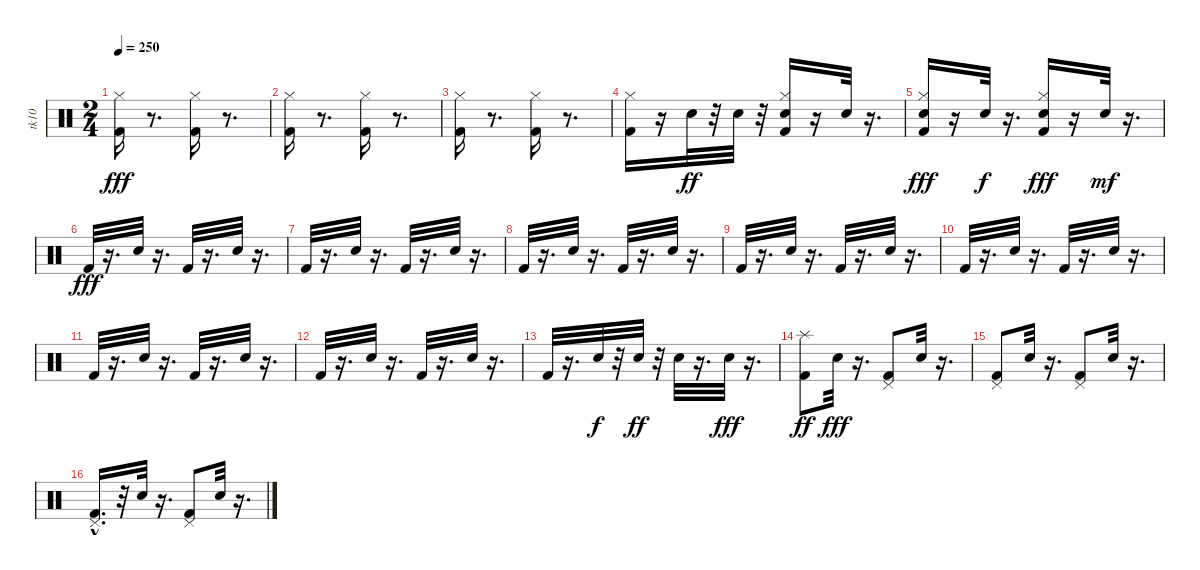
\track ("tk10" "tk10") {instrument percussion}
\staff {score}
\articulation defaults
\ts (2 4)
\tempo 250
\clef neutral
\ks c
("Kick (hit) 2" "Hi-Hat (closed)").16{dy fff} r.8{d} ("Kick (hit) 2" "Hi-Hat (closed)").16 r.8{d} |
("Kick (hit) 2" "Hi-Hat (closed)").16 r.8{d} ("Hi-Hat (closed)" "Kick (hit) 2").16 r.8{d} |
("Hi-Hat (closed)" "Kick (hit) 2").16 r.8{d} ("Hi-Hat (closed)" "Kick (hit) 2").16 r.8{d} |
("Hi-Hat (closed)" "Kick (hit) 2").16 r.16 "Electric Snare (hit)".32{dy ff} r.32 "Electric Snare (hit)".32 r.32 ("Hi-Hat (closed)" "Kick (hit) 2" "Electric Snare (hit)").16 r.16 "Electric Snare (hit)".32 r.16{d} |
("Hi-Hat (closed)" "Kick (hit) 2" "Electric Snare (hit)").16{dy fff} r.16 "Electric Snare (hit)".32{dy f} r.16{d} ("Kick (hit) 2" "Hi-Hat (closed)" "Electric Snare (hit)").16{dy fff} r.16 "Electric Snare (hit)".32{dy mf} r.16{d} |
"Kick (hit) 2".32{dy fff} r.16{d} "Snare (hit) 2".32 r.16{d} "Kick (hit) 2".32 r.16{d} "Snare (hit) 2".32 r.16{d} |
"Kick (hit) 2".32 r.16{d} "Snare (hit) 2".32 r.16{d} "Kick (hit) 2".32 r.16{d} "Snare (hit) 2".32 r.16{d} |
"Kick (hit) 2".32 r.16{d} "Snare (hit) 2".32 r.16{d} "Kick (hit) 2".32 r.16{d} "Snare (hit) 2".32 r.16{d} |
"Kick (hit) 2".32 r.16{d} "Snare (hit) 2".32 r.16{d} "Kick (hit) 2".32 r.16{d} "Snare (hit) 2".32 r.16{d} |
"Kick (hit) 2".32 r.16{d} "Snare (hit) 2".32 r.16{d} "Kick (hit) 2".32 r.16{d} "Snare (hit) 2".32 r.16{d} |
"Kick (hit) 2".32 r.16{d} "Snare (hit) 2".32 r.16{d} "Kick (hit) 2".32 r.16{d} "Snare (hit) 2".32 r.16{d} |
"Kick (hit) 2".32 r.16{d} "Snare (hit) 2".32 r.16{d} "Kick (hit) 2".32 r.16{d} "Snare (hit) 2".32 r.16{d} |
"Kick (hit) 2".32 r.16{d} "Electric Snare (hit)".32{dy f} r.32 "Electric Snare (hit)".32{dy ff} r.32 "Electric Snare (hit)".32 r.16{d} "Electric Snare (hit)".32{dy fff} r.16{d} |
("Kick (hit) 2" "Splash (hit)").8{dy ff} "Snare (hit) 2".32{dy fff} r.16{d} ("Kick (hit) 2" "Pedal Hi-Hat (hit)").8 "Snare (hit) 2".32 r.16{d} |
("Kick (hit) 2" "Pedal Hi-Hat (hit)").8 "Snare (hit) 2".32 r.16{d} ("Kick (hit) 2" "Pedal Hi-Hat (hit)").8 "Snare (hit) 2".32 r.16{d} |
("Kick (hit) 2"{hac} "Pedal Hi-Hat (hit)").16{d} r.32 "Snare (hit) 2".32 r.16{d} ("Kick (hit) 2" "Pedal Hi-Hat (hit)").8 "Snare (hit) 2".32 r.16{d}
